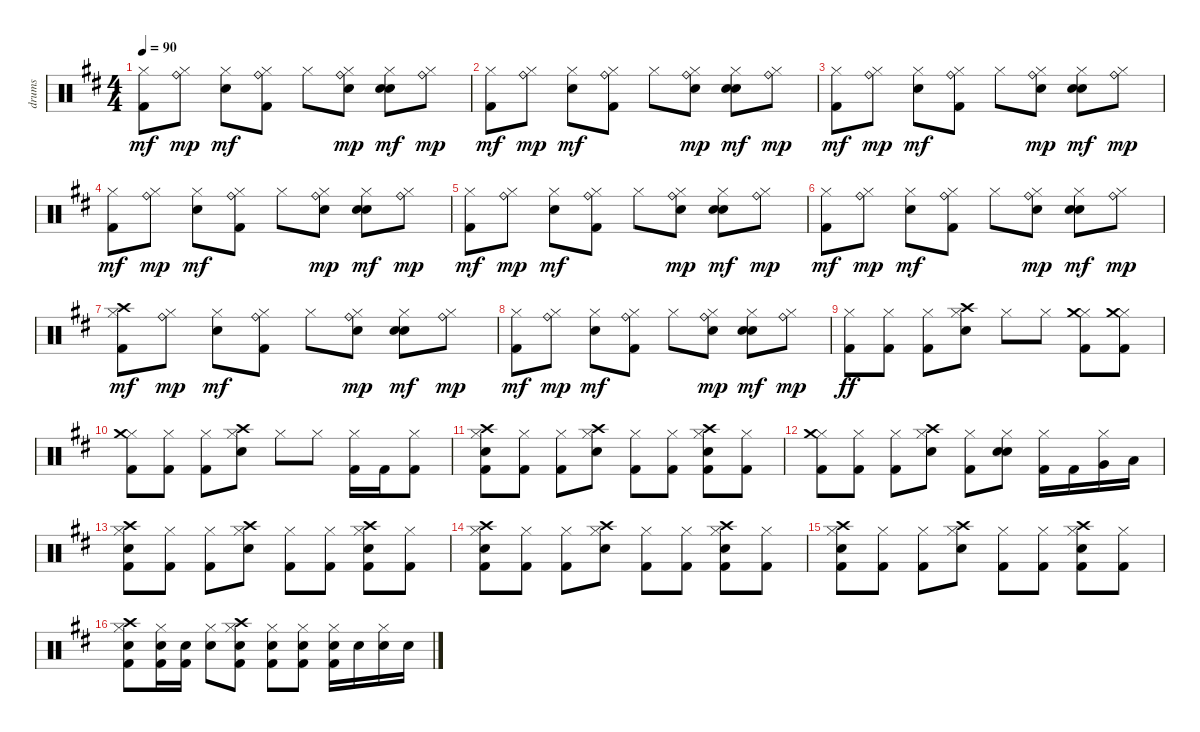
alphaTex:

\track ("drums" "drums") {instrument percussion}
\staff {score}
\articulation defaults
\ts (4 4)
\tempo 90
\clef neutral
\ks d
("Hi-Hat (closed)" "Kick (hit) 2").8{dy mf} ("Hi-Hat (closed)" "Ride (bell)").8{dy mp} ("Hi-Hat (closed)" "Electric Snare (hit)").8{dy mf} ("Hi-Hat (closed)" "Ride (bell)" "Kick (hit) 2").8 "Hi-Hat (closed)".8 ("Hi-Hat (closed)" "Hand Clap (hit)" "Ride (bell)").8{dy mp} ("Hi-Hat (closed)" "Hand Clap (hit)" "Snare (hit) 2").8{dy mf} ("Hi-Hat (closed)" "Ride (bell)").8{dy mp} |
("Hi-Hat (closed)" "Kick (hit) 2").8{dy mf} ("Hi-Hat (closed)" "Ride (bell)").8{dy mp} ("Hi-Hat (closed)" "Electric Snare (hit)").8{dy mf} ("Hi-Hat (closed)" "Ride (bell)" "Kick (hit) 2").8 "Hi-Hat (closed)".8 ("Hi-Hat (closed)" "Hand Clap (hit)" "Ride (bell)").8{dy mp} ("Hi-Hat (closed)" "Hand Clap (hit)" "Snare (hit) 2").8{dy mf} ("Hi-Hat (closed)" "Ride (bell)").8{dy mp} |
("Hi-Hat (closed)" "Kick (hit) 2").8{dy mf} ("Hi-Hat (closed)" "Ride (bell)").8{dy mp} ("Hi-Hat (closed)" "Electric Snare (hit)").8{dy mf} ("Hi-Hat (closed)" "Ride (bell)" "Kick (hit) 2").8 "Hi-Hat (closed)".8 ("Hi-Hat (closed)" "Hand Clap (hit)" "Ride (bell)").8{dy mp} ("Hi-Hat (closed)" "Hand Clap (hit)" "Snare (hit) 2").8{dy mf} ("Hi-Hat (closed)" "Ride (bell)").8{dy mp} |
("Hi-Hat (closed)" "Kick (hit) 2").8{dy mf} ("Hi-Hat (closed)" "Ride (bell)").8{dy mp} ("Hi-Hat (closed)" "Electric Snare (hit)").8{dy mf} ("Hi-Hat (closed)" "Ride (bell)" "Kick (hit) 2").8 "Hi-Hat (closed)".8 ("Hi-Hat (closed)" "Hand Clap (hit)" "Ride (bell)").8{dy mp} ("Hi-Hat (closed)" "Hand Clap (hit)" "Snare (hit) 2").8{dy mf} ("Hi-Hat (closed)" "Ride (bell)").8{dy mp} |
("Hi-Hat (closed)" "Kick (hit) 2").8{dy mf} ("Hi-Hat (closed)" "Ride (bell)").8{dy mp} ("Hi-Hat (closed)" "Electric Snare (hit)").8{dy mf} ("Hi-Hat (closed)" "Ride (bell)" "Kick (hit) 2").8 "Hi-Hat (closed)".8 ("Hi-Hat (closed)" "Hand Clap (hit)" "Ride (bell)").8{dy mp} ("Hi-Hat (closed)" "Hand Clap (hit)" "Snare (hit) 2").8{dy mf} ("Hi-Hat (closed)" "Ride (bell)").8{dy mp} |
("Hi-Hat (closed)" "Kick (hit) 2").8{dy mf} ("Hi-Hat (closed)" "Ride (bell)").8{dy mp} ("Hi-Hat (closed)" "Electric Snare (hit)").8{dy mf} ("Hi-Hat (closed)" "Ride (bell)" "Kick (hit) 2").8 "Hi-Hat (closed)".8 ("Hi-Hat (closed)" "Hand Clap (hit)" "Ride (bell)").8{dy mp} ("Hi-Hat (closed)" "Hand Clap (hit)" "Snare (hit) 2").8{dy mf} ("Hi-Hat (closed)" "Ride (bell)").8{dy mp} |
("Hi-Hat (closed)" "Crash high (hit)" "Kick (hit) 2").8{dy mf} ("Hi-Hat (closed)" "Ride (bell)").8{dy mp} ("Hi-Hat (closed)" "Electric Snare (hit)").8{dy mf} ("Hi-Hat (closed)" "Ride (bell)" "Kick (hit) 2").8 "Hi-Hat (closed)".8 ("Hi-Hat (closed)" "Hand Clap (hit)" "Ride (bell)").8{dy mp} ("Hi-Hat (closed)" "Hand Clap (hit)" "Snare (hit) 2").8{dy mf} ("Hi-Hat (closed)" "Ride (bell)").8{dy mp} |
("Hi-Hat (closed)" "Kick (hit) 2").8{dy mf} ("Hi-Hat (closed)" "Ride (bell)").8{dy mp} ("Hi-Hat (closed)" "Electric Snare (hit)").8{dy mf} ("Hi-Hat (closed)" "Ride (bell)" "Kick (hit) 2").8 "Hi-Hat (closed)".8 ("Hi-Hat (closed)" "Hand Clap (hit)" "Ride (bell)").8{dy mp} ("Hi-Hat (closed)" "Hand Clap (hit)" "Snare (hit) 2").8{dy mf} ("Hi-Hat (closed)" "Ride (bell)").8{dy mp} |
("Hi-Hat (closed)" "Kick (hit) 2").8{dy ff} ("Hi-Hat (closed)" "Kick (hit) 2").8 ("Hi-Hat (closed)" "Kick (hit) 2").8 ("Hi-Hat (closed)" "Crash high (hit)" "Electric Snare (hit)").8 "Hi-Hat (closed)".8 "Hi-Hat (closed)".8 ("Hi-Hat (closed)" "Crash medium (hit)" "Kick (hit) 2").8 ("Hi-Hat (closed)" "Crash medium (hit)" "Kick (hit) 2").8 |
("Hi-Hat (closed)" "Crash medium (hit)" "Kick (hit) 2").8 ("Hi-Hat (closed)" "Kick (hit) 2").8 ("Hi-Hat (closed)" "Kick (hit) 2").8 ("Hi-Hat (closed)" "Crash high (hit)" "Electric Snare (hit)").8 "Hi-Hat (closed)".8 "Hi-Hat (closed)".8 ("Hi-Hat (closed)" "Kick (hit) 2").16 "Kick (hit) 2".16 ("Hi-Hat (closed)" "Kick (hit) 2").8 |
("Hi-Hat (closed)" "Crash high (hit)" "Electric Snare (hit)" "Kick (hit) 2").8 ("Hi-Hat (closed)" "Kick (hit) 2").8 ("Hi-Hat (closed)" "Kick (hit) 2").8 ("Hi-Hat (closed)" "Crash high (hit)" "Electric Snare (hit)").8 ("Hi-Hat (closed)" "Kick (hit) 2").8 ("Hi-Hat (closed)" "Kick (hit) 2").8 ("Hi-Hat (closed)" "Crash high (hit)" "Electric Snare (hit)" "Kick (hit) 2").8 ("Hi-Hat (closed)" "Kick (hit) 2").8 |
("Hi-Hat (closed)" "Crash medium (hit)" "Kick (hit) 2").8 ("Hi-Hat (closed)" "Kick (hit) 2").8 ("Hi-Hat (closed)" "Kick (hit) 2").8 ("Hi-Hat (closed)" "Crash high (hit)" "Electric Snare (hit)").8 ("Hi-Hat (closed)" "Kick (hit) 2").8 ("Hi-Hat (closed)" "Snare (hit) 2" "Electric Snare (hit)").8 ("Hi-Hat (closed)" "Kick (hit) 2").16 "Kick (hit) 2".16 ("Hi-Hat (closed)" "Very Low Tom (hit)").16 "Low Floor Tom (hit)".16 |
("Hi-Hat (closed)" "Crash high (hit)" "Electric Snare (hit)" "Kick (hit) 2").8 ("Hi-Hat (closed)" "Kick (hit) 2").8 ("Hi-Hat (closed)" "Kick (hit) 2").8 ("Hi-Hat (closed)" "Crash high (hit)" "Electric Snare (hit)").8 ("Hi-Hat (closed)" "Kick (hit) 2").8 ("Hi-Hat (closed)" "Kick (hit) 2").8 ("Hi-Hat (closed)" "Crash high (hit)" "Electric Snare (hit)" "Kick (hit) 2").8 ("Hi-Hat (closed)" "Kick (hit) 2").8 |
("Hi-Hat (closed)" "Crash high (hit)" "Electric Snare (hit)" "Kick (hit) 2").8 ("Hi-Hat (closed)" "Kick (hit) 2").8 ("Hi-Hat (closed)" "Kick (hit) 2").8 ("Hi-Hat (closed)" "Crash high (hit)" "Electric Snare (hit)").8 ("Hi-Hat (closed)" "Kick (hit) 2").8 ("Hi-Hat (closed)" "Kick (hit) 2").8 ("Hi-Hat (closed)" "Crash high (hit)" "Electric Snare (hit)" "Kick (hit) 2").8 ("Hi-Hat (closed)" "Kick (hit) 2").8 |
("Hi-Hat (closed)" "Crash high (hit)" "Electric Snare (hit)" "Kick (hit) 2").8 ("Hi-Hat (closed)" "Kick (hit) 2").8 ("Hi-Hat (closed)" "Kick (hit) 2").8 ("Hi-Hat (closed)" "Crash high (hit)" "Electric Snare (hit)").8 ("Hi-Hat (closed)" "Kick (hit) 2").8 ("Hi-Hat (closed)" "Kick (hit) 2").8 ("Hi-Hat (closed)" "Crash high (hit)" "Electric Snare (hit)" "Kick (hit) 2").8 ("Hi-Hat (closed)" "Kick (hit) 2").8 |
("Hi-Hat (closed)" "Crash high (hit)" "Electric Snare (hit)" "Kick (hit) 2").8 ("Hi-Hat (closed)" "Electric Snare (hit)" "Kick (hit) 2").16 ("Electric Snare (hit)" "Kick (hit) 2").16 ("Hi-Hat (closed)" "Electric Snare (hit)").8 ("Hi-Hat (closed)" "Crash high (hit)" "Electric Snare (hit)" "Kick (hit) 2").8 ("Hi-Hat (closed)" "Electric Snare (hit)" "Kick (hit) 2").8 ("Hi-Hat (closed)" "Electric Snare (hit)" "Kick (hit) 2").8 ("Hi-Hat (closed)" "Electric Snare (hit)" "Kick (hit) 2").16 "Electric Snare (hit)".16 ("Hi-Hat (closed)" "Electric Snare (hit)").16 "Electric Snare (hit)".16
